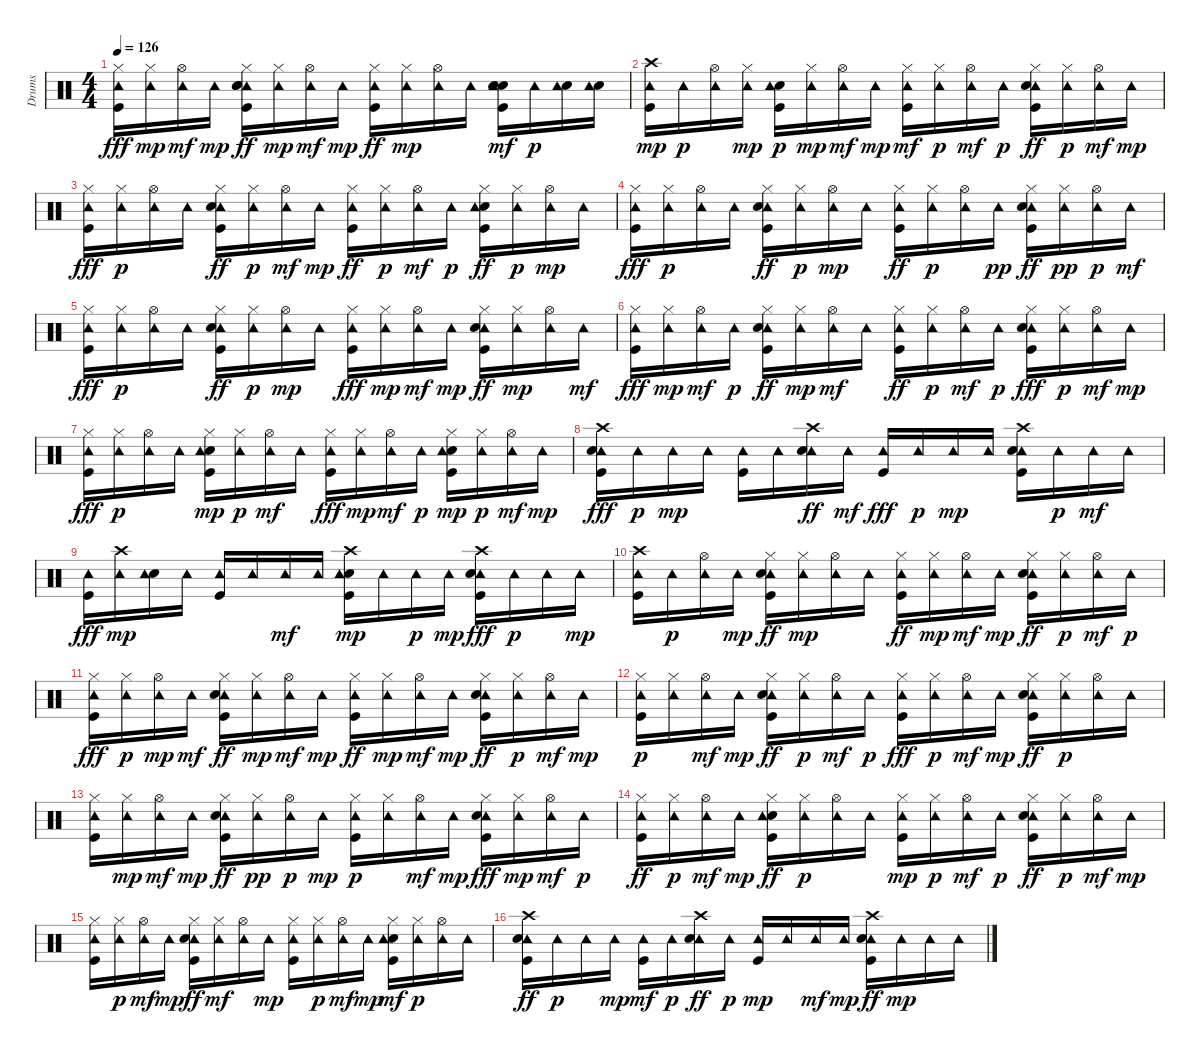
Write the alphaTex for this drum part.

\track ("Drums" "Drums") {instrument percussion}
\staff {score}
\articulation defaults
\ts (4 4)
\tempo 126
\clef neutral
\ks c
("Tambourine (hit)" "Hi-Hat (closed)" "Kick (hit)").16{dy fff} ("Tambourine (hit)" "Hi-Hat (closed)").16{dy mp} ("Tambourine (hit)" "Hi-Hat (open)").16{dy mf} "Tambourine (hit)".16{dy mp} ("Tambourine (hit)" "Hi-Hat (closed)" "Kick (hit)" "Snare (hit) 2" "Hand Clap (hit)").16{dy ff} ("Tambourine (hit)" "Hi-Hat (closed)").16{dy mp} ("Tambourine (hit)" "Hi-Hat (open)").16{dy mf} "Tambourine (hit)".16{dy mp} ("Kick (hit)" "Tambourine (hit)" "Hi-Hat (closed)").16{dy ff} ("Hi-Hat (closed)" "Tambourine (hit)").16{dy mp} ("Hi-Hat (open)" "Tambourine (hit)").16 "Tambourine (hit)".16 ("Snare (hit) 2" "Hand Clap (hit)" "Kick (hit)" "Tambourine (hit)").16{dy mf} "Tambourine (hit)".16{dy p} ("Snare (hit) 2" "Tambourine (hit)").16 ("Snare (hit) 2" "Tambourine (hit)").16 |
("Tambourine (hit)" "Kick (hit)" "Crash high (hit)").16{dy mp} "Tambourine (hit)".16{dy p} ("Hi-Hat (open)" "Tambourine (hit)").16 ("Hi-Hat (closed)" "Tambourine (hit)").16{dy mp} ("Kick (hit)" "Snare (hit) 2" "Tambourine (hit)").16{dy p} ("Hi-Hat (closed)" "Tambourine (hit)").16{dy mp} ("Hi-Hat (open)" "Tambourine (hit)").16{dy mf} "Tambourine (hit)".16{dy mp} ("Kick (hit)" "Tambourine (hit)" "Hi-Hat (closed)").16{dy mf} ("Hi-Hat (closed)" "Tambourine (hit)").16{dy p} ("Tambourine (hit)" "Hi-Hat (open)").16{dy mf} "Tambourine (hit)".16{dy p} ("Tambourine (hit)" "Hi-Hat (closed)" "Kick (hit)" "Snare (hit) 2").16{dy ff} ("Tambourine (hit)" "Hi-Hat (closed)").16{dy p} ("Tambourine (hit)" "Hi-Hat (open)").16{dy mf} "Tambourine (hit)".16{dy mp} |
("Tambourine (hit)" "Hi-Hat (closed)" "Kick (hit)").16{dy fff} ("Tambourine (hit)" "Hi-Hat (closed)").16{dy p} ("Hi-Hat (open)" "Tambourine (hit)").16 "Tambourine (hit)".16 ("Tambourine (hit)" "Hi-Hat (closed)" "Kick (hit)" "Snare (hit) 2").16{dy ff} ("Tambourine (hit)" "Hi-Hat (closed)").16{dy p} ("Tambourine (hit)" "Hi-Hat (open)").16{dy mf} "Tambourine (hit)".16{dy mp} ("Tambourine (hit)" "Kick (hit)" "Hi-Hat (closed)").16{dy ff} ("Tambourine (hit)" "Hi-Hat (closed)").16{dy p} ("Tambourine (hit)" "Hi-Hat (open)").16{dy mf} "Tambourine (hit)".16{dy p} ("Kick (hit)" "Snare (hit) 2" "Tambourine (hit)" "Hi-Hat (closed)").16{dy ff} ("Tambourine (hit)" "Hi-Hat (closed)").16{dy p} ("Hi-Hat (open)" "Tambourine (hit)").16{dy mp} "Tambourine (hit)".16 |
("Tambourine (hit)" "Hi-Hat (closed)" "Kick (hit)").16{dy fff} ("Hi-Hat (closed)" "Tambourine (hit)").16{dy p} ("Hi-Hat (open)" "Tambourine (hit)").16 "Tambourine (hit)".16 ("Hi-Hat (closed)" "Tambourine (hit)" "Kick (hit)" "Snare (hit) 2").16{dy ff} ("Hi-Hat (closed)" "Tambourine (hit)").16{dy p} ("Hi-Hat (open)" "Tambourine (hit)").16{dy mp} "Tambourine (hit)".16 ("Tambourine (hit)" "Kick (hit)" "Hi-Hat (closed)").16{dy ff} ("Tambourine (hit)" "Hi-Hat (closed)").16{dy p} ("Tambourine (hit)" "Hi-Hat (open)").16 "Tambourine (hit)".16{dy pp} ("Tambourine (hit)" "Hi-Hat (closed)" "Kick (hit)" "Snare (hit) 2").16{dy ff} ("Tambourine (hit)" "Hi-Hat (closed)").16{dy pp} ("Tambourine (hit)" "Hi-Hat (open)").16{dy p} "Tambourine (hit)".16{dy mf} |
("Hi-Hat (closed)" "Tambourine (hit)" "Kick (hit)").16{dy fff} ("Hi-Hat (closed)" "Tambourine (hit)").16{dy p} ("Hi-Hat (open)" "Tambourine (hit)").16 "Tambourine (hit)".16 ("Hi-Hat (closed)" "Tambourine (hit)" "Kick (hit)" "Snare (hit) 2").16{dy ff} ("Hi-Hat (closed)" "Tambourine (hit)").16{dy p} ("Hi-Hat (open)" "Tambourine (hit)").16{dy mp} "Tambourine (hit)".16 ("Tambourine (hit)" "Hi-Hat (closed)" "Kick (hit)").16{dy fff} ("Tambourine (hit)" "Hi-Hat (closed)").16{dy mp} ("Tambourine (hit)" "Hi-Hat (open)").16{dy mf} "Tambourine (hit)".16{dy mp} ("Tambourine (hit)" "Hi-Hat (closed)" "Kick (hit)" "Snare (hit) 2").16{dy ff} ("Tambourine (hit)" "Hi-Hat (closed)").16{dy mp} ("Hi-Hat (open)" "Tambourine (hit)").16 "Tambourine (hit)".16{dy mf} |
("Tambourine (hit)" "Hi-Hat (closed)" "Kick (hit)").16{dy fff} ("Tambourine (hit)" "Hi-Hat (closed)").16{dy mp} ("Tambourine (hit)" "Hi-Hat (open)").16{dy mf} "Tambourine (hit)".16{dy p} ("Kick (hit)" "Tambourine (hit)" "Hi-Hat (closed)" "Snare (hit) 2").16{dy ff} ("Tambourine (hit)" "Hi-Hat (closed)").16{dy mp} ("Tambourine (hit)" "Hi-Hat (open)").16{dy mf} "Tambourine (hit)".16 ("Tambourine (hit)" "Kick (hit)" "Hi-Hat (closed)").16{dy ff} ("Tambourine (hit)" "Hi-Hat (closed)").16{dy p} ("Tambourine (hit)" "Hi-Hat (open)").16{dy mf} "Tambourine (hit)".16{dy p} ("Hi-Hat (closed)" "Tambourine (hit)" "Kick (hit)" "Snare (hit) 2").16{dy fff} ("Hi-Hat (closed)" "Tambourine (hit)").16{dy p} ("Hi-Hat (open)" "Tambourine (hit)").16{dy mf} "Tambourine (hit)".16{dy mp} |
("Tambourine (hit)" "Hi-Hat (closed)" "Kick (hit)").16{dy fff} ("Tambourine (hit)" "Hi-Hat (closed)").16{dy p} ("Hi-Hat (open)" "Tambourine (hit)").16 "Tambourine (hit)".16 ("Hi-Hat (closed)" "Kick (hit)" "Snare (hit) 2" "Tambourine (hit)").16{dy mp} ("Hi-Hat (closed)" "Tambourine (hit)").16{dy p} ("Tambourine (hit)" "Hi-Hat (open)").16{dy mf} "Tambourine (hit)".16 ("Tambourine (hit)" "Hi-Hat (closed)" "Kick (hit)").16{dy fff} ("Tambourine (hit)" "Hi-Hat (closed)").16{dy mp} ("Tambourine (hit)" "Hi-Hat (open)").16{dy mf} "Tambourine (hit)".16{dy p} ("Kick (hit)" "Snare (hit) 2" "Tambourine (hit)" "Hi-Hat (closed)").16{dy mp} ("Hi-Hat (closed)" "Tambourine (hit)").16{dy p} ("Tambourine (hit)" "Hi-Hat (open)").16{dy mf} "Tambourine (hit)".16{dy mp} |
("Kick (hit)" "Tambourine (hit)" "Crash high (hit)" "Snare (hit) 2").16{dy fff} "Tambourine (hit)".16{dy p} "Tambourine (hit)".16{dy mp} "Tambourine (hit)".16 ("Kick (hit)" "Tambourine (hit)").16 "Tambourine (hit)".16 ("Crash high (hit)" "Tambourine (hit)" "Snare (hit) 2").16{dy ff} "Tambourine (hit)".16{dy mf} ("Tambourine (hit)" "Kick (hit)").16{dy fff} "Tambourine (hit)".16{dy p} "Tambourine (hit)".16{dy mp} "Tambourine (hit)".16 ("Tambourine (hit)" "Snare (hit) 2" "Kick (hit)" "Crash high (hit)").16 "Tambourine (hit)".16{dy p} "Tambourine (hit)".16{dy mf} "Tambourine (hit)".16 |
("Tambourine (hit)" "Kick (hit)").16{dy fff} ("Crash high (hit)" "Tambourine (hit)").16{dy mp} ("Snare (hit) 2" "Tambourine (hit)").16 "Tambourine (hit)".16 ("Kick (hit)" "Tambourine (hit)").16 "Tambourine (hit)".16 "Tambourine (hit)".16{dy mf} "Tambourine (hit)".16 ("Snare (hit) 2" "Tambourine (hit)" "Kick (hit)" "Crash high (hit)").16{dy mp} "Tambourine (hit)".16 "Tambourine (hit)".16{dy p} "Tambourine (hit)".16{dy mp} ("Kick (hit)" "Tambourine (hit)" "Crash high (hit)" "Snare (hit) 2").16{dy fff} "Tambourine (hit)".16{dy p} "Tambourine (hit)".16 "Tambourine (hit)".16{dy mp} |
("Crash high (hit)" "Kick (hit)" "Tambourine (hit)").16 "Tambourine (hit)".16{dy p} ("Hi-Hat (open)" "Tambourine (hit)").16 "Tambourine (hit)".16{dy mp} ("Tambourine (hit)" "Hi-Hat (closed)" "Kick (hit)" "Snare (hit) 2").16{dy ff} ("Hi-Hat (closed)" "Tambourine (hit)").16{dy mp} ("Hi-Hat (open)" "Tambourine (hit)").16 "Tambourine (hit)".16 ("Kick (hit)" "Tambourine (hit)" "Hi-Hat (closed)").16{dy ff} ("Hi-Hat (closed)" "Tambourine (hit)").16{dy mp} ("Tambourine (hit)" "Hi-Hat (open)").16{dy mf} "Tambourine (hit)".16{dy mp} ("Tambourine (hit)" "Kick (hit)" "Snare (hit) 2" "Hi-Hat (closed)").16{dy ff} ("Tambourine (hit)" "Hi-Hat (closed)").16{dy p} ("Tambourine (hit)" "Hi-Hat (open)").16{dy mf} "Tambourine (hit)".16{dy p} |
("Tambourine (hit)" "Hi-Hat (closed)" "Kick (hit)").16{dy fff} ("Hi-Hat (closed)" "Tambourine (hit)").16{dy p} ("Hi-Hat (open)" "Tambourine (hit)").16{dy mp} "Tambourine (hit)".16{dy mf} ("Tambourine (hit)" "Kick (hit)" "Snare (hit) 2" "Hi-Hat (closed)").16{dy ff} ("Tambourine (hit)" "Hi-Hat (closed)").16{dy mp} ("Tambourine (hit)" "Hi-Hat (open)").16{dy mf} "Tambourine (hit)".16{dy mp} ("Tambourine (hit)" "Kick (hit)" "Hi-Hat (closed)").16{dy ff} ("Tambourine (hit)" "Hi-Hat (closed)").16{dy mp} ("Tambourine (hit)" "Hi-Hat (open)").16{dy mf} "Tambourine (hit)".16{dy mp} ("Tambourine (hit)" "Kick (hit)" "Snare (hit) 2" "Hi-Hat (closed)").16{dy ff} ("Tambourine (hit)" "Hi-Hat (closed)").16{dy p} ("Tambourine (hit)" "Hi-Hat (open)").16{dy mf} "Tambourine (hit)".16{dy mp} |
("Hi-Hat (closed)" "Kick (hit)" "Tambourine (hit)").16{dy p} ("Hi-Hat (closed)" "Tambourine (hit)").16 ("Tambourine (hit)" "Hi-Hat (open)").16{dy mf} "Tambourine (hit)".16{dy mp} ("Tambourine (hit)" "Hi-Hat (closed)" "Kick (hit)" "Snare (hit) 2").16{dy ff} ("Tambourine (hit)" "Hi-Hat (closed)").16{dy p} ("Tambourine (hit)" "Hi-Hat (open)").16{dy mf} "Tambourine (hit)".16{dy p} ("Tambourine (hit)" "Hi-Hat (closed)" "Kick (hit)").16{dy fff} ("Tambourine (hit)" "Hi-Hat (closed)").16{dy p} ("Tambourine (hit)" "Hi-Hat (open)").16{dy mf} "Tambourine (hit)".16{dy mp} ("Tambourine (hit)" "Hi-Hat (closed)" "Kick (hit)" "Snare (hit) 2").16{dy ff} ("Tambourine (hit)" "Hi-Hat (closed)").16{dy p} ("Hi-Hat (open)" "Tambourine (hit)").16 "Tambourine (hit)".16 |
("Hi-Hat (closed)" "Kick (hit)" "Tambourine (hit)").16 ("Tambourine (hit)" "Hi-Hat (closed)").16{dy mp} ("Tambourine (hit)" "Hi-Hat (open)").16{dy mf} "Tambourine (hit)".16{dy mp} ("Hi-Hat (closed)" "Tambourine (hit)" "Kick (hit)" "Snare (hit) 2").16{dy ff} ("Hi-Hat (closed)" "Tambourine (hit)").16{dy pp} ("Hi-Hat (open)" "Tambourine (hit)").16{dy p} "Tambourine (hit)".16{dy mp} ("Hi-Hat (closed)" "Kick (hit)" "Tambourine (hit)").16{dy p} ("Hi-Hat (closed)" "Tambourine (hit)").16 ("Tambourine (hit)" "Hi-Hat (open)").16{dy mf} "Tambourine (hit)".16{dy mp} ("Tambourine (hit)" "Hi-Hat (closed)" "Kick (hit)" "Snare (hit) 2").16{dy fff} ("Tambourine (hit)" "Hi-Hat (closed)").16{dy mp} ("Tambourine (hit)" "Hi-Hat (open)").16{dy mf} "Tambourine (hit)".16{dy p} |
("Kick (hit)" "Tambourine (hit)" "Hi-Hat (closed)").16{dy ff} ("Tambourine (hit)" "Hi-Hat (closed)").16{dy p} ("Tambourine (hit)" "Hi-Hat (open)").16{dy mf} "Tambourine (hit)".16{dy mp} ("Kick (hit)" "Snare (hit) 2" "Tambourine (hit)" "Hi-Hat (closed)").16{dy ff} ("Tambourine (hit)" "Hi-Hat (closed)").16{dy p} ("Hi-Hat (open)" "Tambourine (hit)").16 "Tambourine (hit)".16 ("Kick (hit)" "Hi-Hat (closed)" "Tambourine (hit)").16{dy mp} ("Hi-Hat (closed)" "Tambourine (hit)").16{dy p} ("Tambourine (hit)" "Hi-Hat (open)").16{dy mf} "Tambourine (hit)".16{dy p} ("Tambourine (hit)" "Hi-Hat (closed)" "Kick (hit)" "Snare (hit) 2").16{dy ff} ("Hi-Hat (closed)" "Tambourine (hit)").16{dy p} ("Tambourine (hit)" "Hi-Hat (open)").16{dy mf} "Tambourine (hit)".16{dy mp} |
("Kick (hit)" "Hi-Hat (closed)" "Tambourine (hit)").16 ("Hi-Hat (closed)" "Tambourine (hit)").16{dy p} ("Tambourine (hit)" "Hi-Hat (open)").16{dy mf} "Tambourine (hit)".16{dy mp} ("Tambourine (hit)" "Hi-Hat (closed)" "Kick (hit)" "Snare (hit) 2").16{dy ff} ("Tambourine (hit)" "Hi-Hat (closed)").16{dy mf} ("Tambourine (hit)" "Hi-Hat (open)").16 "Tambourine (hit)".16{dy mp} ("Kick (hit)" "Hi-Hat (closed)" "Tambourine (hit)").16 ("Hi-Hat (closed)" "Tambourine (hit)").16{dy p} ("Tambourine (hit)" "Hi-Hat (open)").16{dy mf} "Tambourine (hit)".16{dy mp} ("Kick (hit)" "Snare (hit) 2" "Tambourine (hit)" "Hi-Hat (closed)").16{dy mf} ("Hi-Hat (closed)" "Tambourine (hit)").16{dy p} ("Hi-Hat (open)" "Tambourine (hit)").16 "Tambourine (hit)".16 |
("Kick (hit)" "Crash high (hit)" "Tambourine (hit)" "Snare (hit) 2").16{dy ff} "Tambourine (hit)".16{dy p} "Tambourine (hit)".16 "Tambourine (hit)".16{dy mp} ("Kick (hit)" "Tambourine (hit)").16{dy mf} "Tambourine (hit)".16{dy p} ("Crash high (hit)" "Tambourine (hit)" "Snare (hit) 2").16{dy ff} "Tambourine (hit)".16{dy p} ("Kick (hit)" "Tambourine (hit)").16{dy mp} "Tambourine (hit)".16 "Tambourine (hit)".16{dy mf} "Tambourine (hit)".16{dy mp} ("Crash high (hit)" "Kick (hit)" "Tambourine (hit)" "Snare (hit) 2").16{dy ff} "Tambourine (hit)".16{dy mp} "Tambourine (hit)".16 "Tambourine (hit)".16
